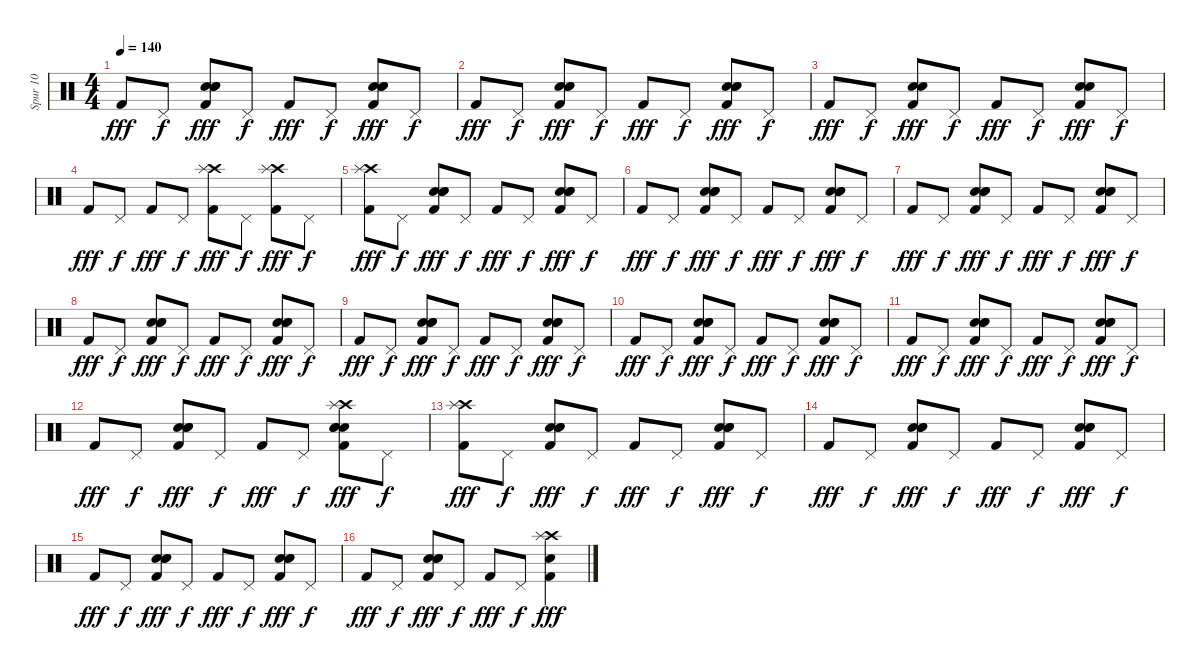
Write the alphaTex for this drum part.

\track ("Spur 10" "Spur 10") {instrument percussion}
\staff {score}
\articulation defaults
\ts (4 4)
\tempo 140
\clef neutral
\ks c "Kick (hit) 2".8{dy fff} "Pedal Hi-Hat (hit)".8{dy f}
("Hand Clap (hit)" "Electric Snare (hit)" "Snare (hit) 2" "Kick (hit) 2").8{dy fff} "Pedal Hi-Hat (hit)".8{dy f} "Kick (hit) 2".8{dy fff} "Pedal Hi-Hat (hit)".8{dy f} ("Hand Clap (hit)" "Electric Snare (hit)" "Snare (hit) 2" "Kick (hit) 2").8{dy fff} "Pedal Hi-Hat (hit)".8{dy f} |
"Kick (hit) 2".8{dy fff} "Pedal Hi-Hat (hit)".8{dy f} ("Hand Clap (hit)" "Electric Snare (hit)" "Snare (hit) 2" "Kick (hit) 2").8{dy fff} "Pedal Hi-Hat (hit)".8{dy f} "Kick (hit) 2".8{dy fff} "Pedal Hi-Hat (hit)".8{dy f} ("Hand Clap (hit)" "Electric Snare (hit)" "Snare (hit) 2" "Kick (hit) 2").8{dy fff} "Pedal Hi-Hat (hit)".8{dy f} |
"Kick (hit) 2".8{dy fff} "Pedal Hi-Hat (hit)".8{dy f} ("Hand Clap (hit)" "Electric Snare (hit)" "Kick (hit) 2").8{dy fff} "Pedal Hi-Hat (hit)".8{dy f} "Kick (hit) 2".8{dy fff} "Pedal Hi-Hat (hit)".8{dy f} ("Hand Clap (hit)" "Electric Snare (hit)" "Kick (hit) 2").8{dy fff} "Pedal Hi-Hat (hit)".8{dy f} |
"Kick (hit) 2".8{dy fff} "Pedal Hi-Hat (hit)".8{dy f} "Kick (hit) 2".8{dy fff} "Pedal Hi-Hat (hit)".8{dy f} ("Crash high (hit)" "Splash (hit)" "Kick (hit) 2").8{dy fff} "Pedal Hi-Hat (hit)".8{dy f} ("Crash high (hit)" "Splash (hit)" "Kick (hit) 2").8{dy fff} "Pedal Hi-Hat (hit)".8{dy f} |
("Crash high (hit)" "Splash (hit)" "Kick (hit) 2").8{dy fff} "Pedal Hi-Hat (hit)".8{dy f} ("Electric Snare (hit)" "Hand Clap (hit)" "Snare (hit) 2" "Kick (hit) 2").8{dy fff} "Pedal Hi-Hat (hit)".8{dy f} "Kick (hit) 2".8{dy fff} "Pedal Hi-Hat (hit)".8{dy f} ("Hand Clap (hit)" "Electric Snare (hit)" "Snare (hit) 2" "Kick (hit) 2").8{dy fff} "Pedal Hi-Hat (hit)".8{dy f} |
"Kick (hit) 2".8{dy fff} "Pedal Hi-Hat (hit)".8{dy f} ("Hand Clap (hit)" "Electric Snare (hit)" "Snare (hit) 2" "Kick (hit) 2").8{dy fff} "Pedal Hi-Hat (hit)".8{dy f} "Kick (hit) 2".8{dy fff} "Pedal Hi-Hat (hit)".8{dy f} ("Hand Clap (hit)" "Electric Snare (hit)" "Snare (hit) 2" "Kick (hit) 2").8{dy fff} "Pedal Hi-Hat (hit)".8{dy f} |
"Kick (hit) 2".8{dy fff} "Pedal Hi-Hat (hit)".8{dy f} ("Hand Clap (hit)" "Electric Snare (hit)" "Snare (hit) 2" "Kick (hit) 2").8{dy fff} "Pedal Hi-Hat (hit)".8{dy f} "Kick (hit) 2".8{dy fff} "Pedal Hi-Hat (hit)".8{dy f} ("Hand Clap (hit)" "Electric Snare (hit)" "Snare (hit) 2" "Kick (hit) 2").8{dy fff} "Pedal Hi-Hat (hit)".8{dy f} |
"Kick (hit) 2".8{dy fff} "Pedal Hi-Hat (hit)".8{dy f} ("Hand Clap (hit)" "Electric Snare (hit)" "Snare (hit) 2" "Kick (hit) 2").8{dy fff} "Pedal Hi-Hat (hit)".8{dy f} "Kick (hit) 2".8{dy fff} "Pedal Hi-Hat (hit)".8{dy f} ("Electric Snare (hit)" "Hand Clap (hit)" "Snare (hit) 2" "Kick (hit) 2").8{dy fff} "Pedal Hi-Hat (hit)".8{dy f} |
"Kick (hit) 2".8{dy fff} "Pedal Hi-Hat (hit)".8{dy f} ("Hand Clap (hit)" "Electric Snare (hit)" "Snare (hit) 2" "Kick (hit) 2").8{dy fff} "Pedal Hi-Hat (hit)".8{dy f} "Kick (hit) 2".8{dy fff} "Pedal Hi-Hat (hit)".8{dy f} ("Hand Clap (hit)" "Electric Snare (hit)" "Snare (hit) 2" "Kick (hit) 2").8{dy fff} "Pedal Hi-Hat (hit)".8{dy f} |
"Kick (hit) 2".8{dy fff} "Pedal Hi-Hat (hit)".8{dy f} ("Electric Snare (hit)" "Hand Clap (hit)" "Snare (hit) 2" "Kick (hit) 2").8{dy fff} "Pedal Hi-Hat (hit)".8{dy f} "Kick (hit) 2".8{dy fff} "Pedal Hi-Hat (hit)".8{dy f} ("Hand Clap (hit)" "Electric Snare (hit)" "Snare (hit) 2" "Kick (hit) 2").8{dy fff} "Pedal Hi-Hat (hit)".8{dy f} |
"Kick (hit) 2".8{dy fff} "Pedal Hi-Hat (hit)".8{dy f} ("Electric Snare (hit)" "Hand Clap (hit)" "Snare (hit) 2" "Kick (hit) 2").8{dy fff} "Pedal Hi-Hat (hit)".8{dy f} "Kick (hit) 2".8{dy fff} "Pedal Hi-Hat (hit)".8{dy f} ("Hand Clap (hit)" "Electric Snare (hit)" "Snare (hit) 2" "Kick (hit) 2").8{dy fff} "Pedal Hi-Hat (hit)".8{dy f} |
"Kick (hit) 2".8{dy fff} "Pedal Hi-Hat (hit)".8{dy f} ("Hand Clap (hit)" "Electric Snare (hit)" "Snare (hit) 2" "Kick (hit) 2").8{dy fff} "Pedal Hi-Hat (hit)".8{dy f} "Kick (hit) 2".8{dy fff} "Pedal Hi-Hat (hit)".8{dy f} ("Crash high (hit)" "Splash (hit)" "Hand Clap (hit)" "Electric Snare (hit)" "Snare (hit) 2" "Kick (hit) 2").8{dy fff} "Pedal Hi-Hat (hit)".8{dy f} |
("Crash high (hit)" "Splash (hit)" "Kick (hit) 2").8{dy fff} "Pedal Hi-Hat (hit)".8{dy f} ("Hand Clap (hit)" "Electric Snare (hit)" "Snare (hit) 2" "Kick (hit) 2").8{dy fff} "Pedal Hi-Hat (hit)".8{dy f} "Kick (hit) 2".8{dy fff} "Pedal Hi-Hat (hit)".8{dy f} ("Electric Snare (hit)" "Hand Clap (hit)" "Snare (hit) 2" "Kick (hit) 2").8{dy fff} "Pedal Hi-Hat (hit)".8{dy f} |
"Kick (hit) 2".8{dy fff} "Pedal Hi-Hat (hit)".8{dy f} ("Hand Clap (hit)" "Electric Snare (hit)" "Snare (hit) 2" "Kick (hit) 2").8{dy fff} "Pedal Hi-Hat (hit)".8{dy f} "Kick (hit) 2".8{dy fff} "Pedal Hi-Hat (hit)".8{dy f} ("Hand Clap (hit)" "Electric Snare (hit)" "Snare (hit) 2" "Kick (hit) 2").8{dy fff} "Pedal Hi-Hat (hit)".8{dy f} |
"Kick (hit) 2".8{dy fff} "Pedal Hi-Hat (hit)".8{dy f} ("Electric Snare (hit)" "Hand Clap (hit)" "Snare (hit) 2" "Kick (hit) 2").8{dy fff} "Pedal Hi-Hat (hit)".8{dy f} "Kick (hit) 2".8{dy fff} "Pedal Hi-Hat (hit)".8{dy f} ("Hand Clap (hit)" "Electric Snare (hit)" "Snare (hit) 2" "Kick (hit) 2").8{dy fff} "Pedal Hi-Hat (hit)".8{dy f} |
"Kick (hit) 2".8{dy fff} "Pedal Hi-Hat (hit)".8{dy f} ("Hand Clap (hit)" "Electric Snare (hit)" "Snare (hit) 2" "Kick (hit) 2").8{dy fff} "Pedal Hi-Hat (hit)".8{dy f} "Kick (hit) 2".8{dy fff} "Pedal Hi-Hat (hit)".8{dy f} ("Crash high (hit)" "Splash (hit)" "Snare (hit) 2" "Kick (hit) 2").4{dy fff}
